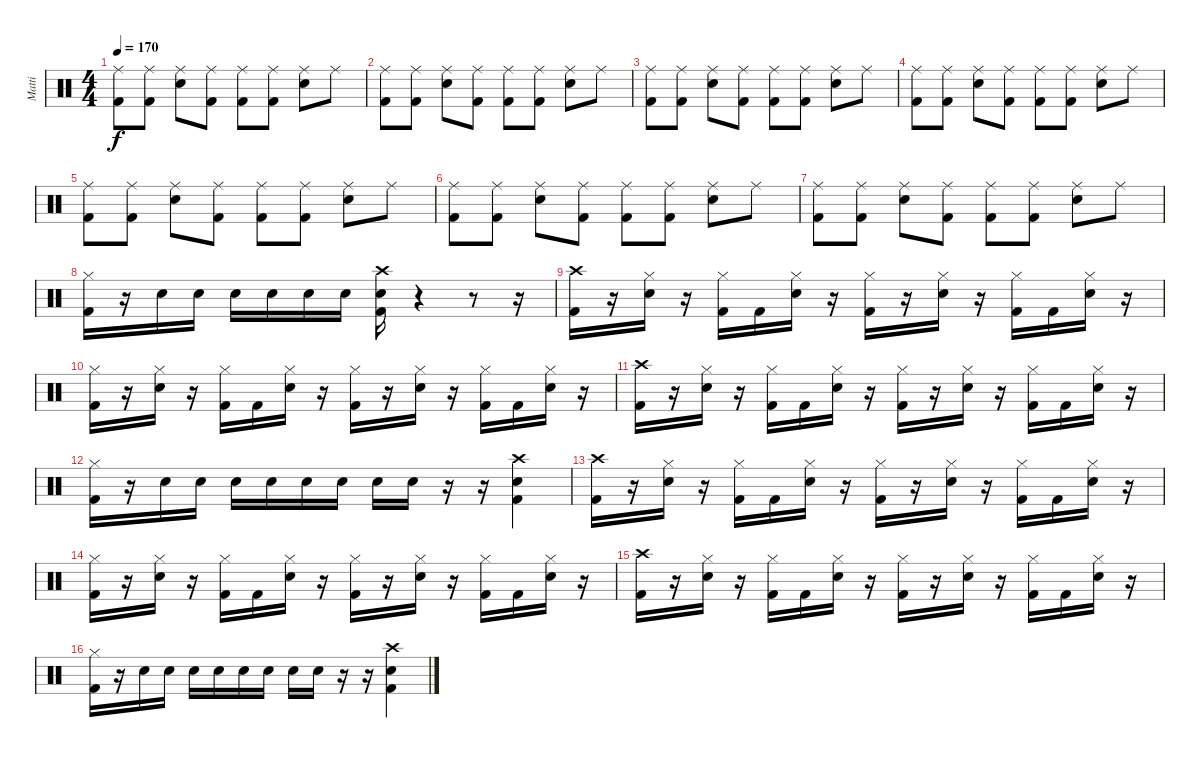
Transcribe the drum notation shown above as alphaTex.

\track ("Matti" "Matti") {instrument percussion}
\staff {score}
\articulation defaults
\ts (4 4)
\tempo 170
\clef neutral
\ks c
("Kick (hit) 2" "Ride (middle)").8{dy f} ("Kick (hit) 2" "Ride (middle)").8 ("Snare (hit) 2" "Ride (middle)").8 ("Kick (hit) 2" "Ride (middle)").8 ("Kick (hit) 2" "Ride (middle)").8 ("Kick (hit) 2" "Ride (middle)").8 ("Snare (hit) 2" "Ride (middle)").8 "Ride (middle)".8 |
("Kick (hit) 2" "Ride (middle)").8 ("Kick (hit) 2" "Ride (middle)").8 ("Snare (hit) 2" "Ride (middle)").8 ("Kick (hit) 2" "Ride (middle)").8 ("Kick (hit) 2" "Ride (middle)").8 ("Kick (hit) 2" "Ride (middle)").8 ("Snare (hit) 2" "Ride (middle)").8 "Ride (middle)".8 |
("Kick (hit) 2" "Ride (middle)").8 ("Kick (hit) 2" "Ride (middle)").8 ("Snare (hit) 2" "Ride (middle)").8 ("Kick (hit) 2" "Ride (middle)").8 ("Kick (hit) 2" "Ride (middle)").8 ("Kick (hit) 2" "Ride (middle)").8 ("Snare (hit) 2" "Ride (middle)").8 "Ride (middle)".8 |
("Kick (hit) 2" "Ride (middle)").8 ("Kick (hit) 2" "Ride (middle)").8 ("Snare (hit) 2" "Ride (middle)").8 ("Kick (hit) 2" "Ride (middle)").8 ("Kick (hit) 2" "Ride (middle)").8 ("Kick (hit) 2" "Ride (middle)").8 ("Snare (hit) 2" "Ride (middle)").8 "Ride (middle)".8 |
("Kick (hit) 2" "Ride (middle)").8 ("Kick (hit) 2" "Ride (middle)").8 ("Snare (hit) 2" "Ride (middle)").8 ("Kick (hit) 2" "Ride (middle)").8 ("Kick (hit) 2" "Ride (middle)").8 ("Kick (hit) 2" "Ride (middle)").8 ("Snare (hit) 2" "Ride (middle)").8 "Ride (middle)".8 |
("Kick (hit) 2" "Ride (middle)").8 ("Kick (hit) 2" "Ride (middle)").8 ("Snare (hit) 2" "Ride (middle)").8 ("Kick (hit) 2" "Ride (middle)").8 ("Kick (hit) 2" "Ride (middle)").8 ("Kick (hit) 2" "Ride (middle)").8 ("Snare (hit) 2" "Ride (middle)").8 "Ride (middle)".8 |
("Kick (hit) 2" "Ride (middle)").8 ("Kick (hit) 2" "Ride (middle)").8 ("Snare (hit) 2" "Ride (middle)").8 ("Kick (hit) 2" "Ride (middle)").8 ("Kick (hit) 2" "Ride (middle)").8 ("Kick (hit) 2" "Ride (middle)").8 ("Snare (hit) 2" "Ride (middle)").8 "Ride (middle)".8 |
("Kick (hit) 2" "Hi-Hat (closed)").16 r.16 "Snare (hit) 2".16 "Snare (hit) 2".16 "Snare (hit) 2".16 "Snare (hit) 2".16 "Snare (hit) 2".16 "Snare (hit) 2".16 ("Snare (hit) 2" "Crash high (hit)" "Kick (hit) 2").16 r.4 r.8 r.16 |
("Kick (hit) 2" "Crash high (hit)").16 r.16 ("Snare (hit) 2" "Hi-Hat (closed)").16 r.16 ("Kick (hit) 2" "Hi-Hat (closed)").16 "Kick (hit) 2".16 ("Snare (hit) 2" "Hi-Hat (closed)").16 r.16 ("Kick (hit) 2" "Hi-Hat (closed)").16 r.16 ("Snare (hit) 2" "Hi-Hat (closed)").16 r.16 ("Kick (hit) 2" "Hi-Hat (closed)").16 "Kick (hit) 2".16 ("Snare (hit) 2" "Hi-Hat (closed)").16 r.16 |
("Kick (hit) 2" "Hi-Hat (closed)").16 r.16 ("Snare (hit) 2" "Hi-Hat (closed)").16 r.16 ("Kick (hit) 2" "Hi-Hat (closed)").16 "Kick (hit) 2".16 ("Snare (hit) 2" "Hi-Hat (closed)").16 r.16 ("Kick (hit) 2" "Hi-Hat (closed)").16 r.16 ("Snare (hit) 2" "Hi-Hat (closed)").16 r.16 ("Kick (hit) 2" "Hi-Hat (closed)").16 "Kick (hit) 2".16 ("Snare (hit) 2" "Hi-Hat (closed)").16 r.16 |
("Kick (hit) 2" "Crash high (hit)").16 r.16 ("Snare (hit) 2" "Hi-Hat (closed)").16 r.16 ("Kick (hit) 2" "Hi-Hat (closed)").16 "Kick (hit) 2".16 ("Snare (hit) 2" "Hi-Hat (closed)").16 r.16 ("Kick (hit) 2" "Hi-Hat (closed)").16 r.16 ("Snare (hit) 2" "Hi-Hat (closed)").16 r.16 ("Kick (hit) 2" "Hi-Hat (closed)").16 "Kick (hit) 2".16 ("Snare (hit) 2" "Hi-Hat (closed)").16 r.16 |
("Kick (hit) 2" "Hi-Hat (closed)").16 r.16 "Snare (hit) 2".16 "Snare (hit) 2".16 "Snare (hit) 2".16 "Snare (hit) 2".16 "Snare (hit) 2".16 "Snare (hit) 2".16 "Snare (hit) 2".16 "Snare (hit) 2".16 r.16 r.16 ("Crash high (hit)" "Kick (hit) 2" "Snare (hit) 2").4 |
("Kick (hit) 2" "Crash high (hit)").16 r.16 ("Snare (hit) 2" "Hi-Hat (closed)").16 r.16 ("Kick (hit) 2" "Hi-Hat (closed)").16 "Kick (hit) 2".16 ("Snare (hit) 2" "Hi-Hat (closed)").16 r.16 ("Kick (hit) 2" "Hi-Hat (closed)").16 r.16 ("Snare (hit) 2" "Hi-Hat (closed)").16 r.16 ("Kick (hit) 2" "Hi-Hat (closed)").16 "Kick (hit) 2".16 ("Snare (hit) 2" "Hi-Hat (closed)").16 r.16 |
("Kick (hit) 2" "Hi-Hat (closed)").16 r.16 ("Snare (hit) 2" "Hi-Hat (closed)").16 r.16 ("Kick (hit) 2" "Hi-Hat (closed)").16 "Kick (hit) 2".16 ("Snare (hit) 2" "Hi-Hat (closed)").16 r.16 ("Kick (hit) 2" "Hi-Hat (closed)").16 r.16 ("Snare (hit) 2" "Hi-Hat (closed)").16 r.16 ("Kick (hit) 2" "Hi-Hat (closed)").16 "Kick (hit) 2".16 ("Snare (hit) 2" "Hi-Hat (closed)").16 r.16 |
("Kick (hit) 2" "Crash high (hit)").16 r.16 ("Snare (hit) 2" "Hi-Hat (closed)").16 r.16 ("Kick (hit) 2" "Hi-Hat (closed)").16 "Kick (hit) 2".16 ("Snare (hit) 2" "Hi-Hat (closed)").16 r.16 ("Kick (hit) 2" "Hi-Hat (closed)").16 r.16 ("Snare (hit) 2" "Hi-Hat (closed)").16 r.16 ("Kick (hit) 2" "Hi-Hat (closed)").16 "Kick (hit) 2".16 ("Snare (hit) 2" "Hi-Hat (closed)").16 r.16 |
("Kick (hit) 2" "Hi-Hat (closed)").16 r.16 "Snare (hit) 2".16 "Snare (hit) 2".16 "Snare (hit) 2".16 "Snare (hit) 2".16 "Snare (hit) 2".16 "Snare (hit) 2".16 "Snare (hit) 2".16 "Snare (hit) 2".16 r.16 r.16 ("Crash high (hit)" "Kick (hit) 2" "Snare (hit) 2").4
